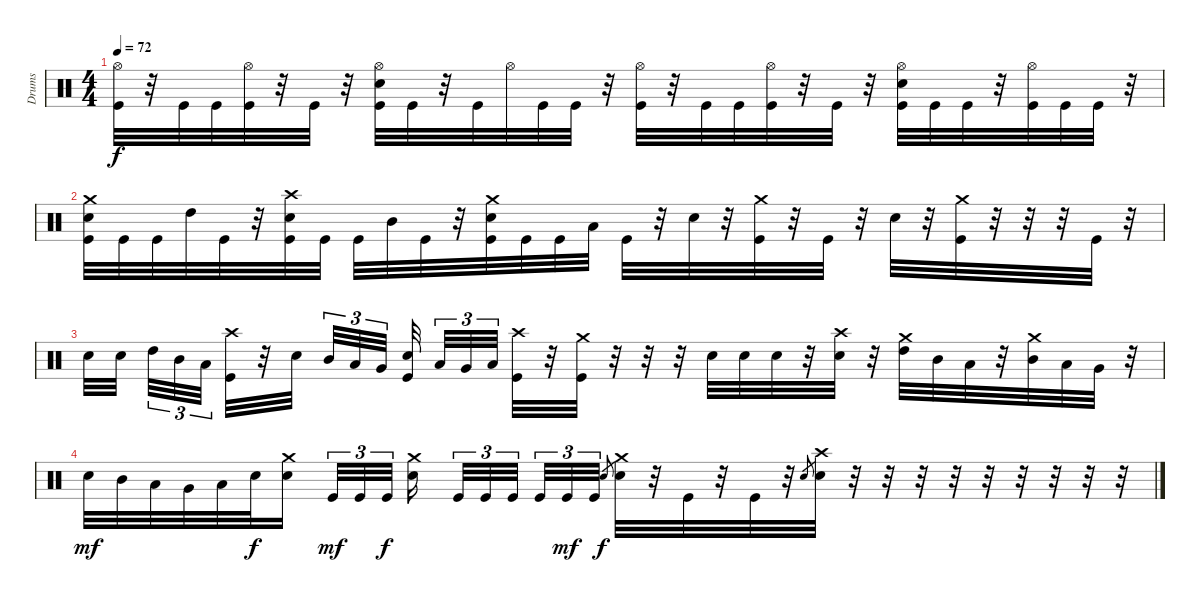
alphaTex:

\track ("Drums" "Drums") {instrument percussion}
\staff {score}
\articulation defaults
\ts (4 4)
\tempo 72
\clef neutral
\ks c
("Hi-Hat (open)" "Kick (hit)").32{dy f} r.32 "Kick (hit)".32 "Kick (hit)".32 ("Hi-Hat (open)" "Kick (hit)").32 r.32 "Kick (hit)".32 r.32 ("Hi-Hat (open)" "Electric Snare (hit)" "Kick (hit)").32 "Kick (hit)".32 r.32 "Kick (hit)".32 "Hi-Hat (open)".32 "Kick (hit)".32 "Kick (hit)".32 r.32 ("Hi-Hat (open)" "Kick (hit)").32 r.32 "Kick (hit)".32 "Kick (hit)".32 ("Hi-Hat (open)" "Kick (hit)").32 r.32 "Kick (hit)".32 r.32 ("Hi-Hat (open)" "Electric Snare (hit)" "Kick (hit)").32 "Kick (hit)".32 "Kick (hit)".32 r.32 ("Hi-Hat (open)" "Kick (hit)").32 "Kick (hit)".32 "Kick (hit)".32 r.32 |
("Crash medium (hit)" "Electric Snare (hit)" "Kick (hit)").32 "Kick (hit)".32 "Kick (hit)".32 "High Tom (hit)".32 "Kick (hit)".32 r.32 ("Crash high (hit)" "Electric Snare (hit)" "Kick (hit)").32 "Kick (hit)".32 "Kick (hit)".32 "Mid Tom (hit)".32 "Kick (hit)".32 r.32 ("Crash medium (hit)" "Electric Snare (hit)" "Kick (hit)").32 "Kick (hit)".32 "Kick (hit)".32 "Low Tom (hit)".32 "Kick (hit)".32 r.32 "Electric Snare (hit)".32 r.32 ("Crash medium (hit)" "Kick (hit)").32 r.32 "Kick (hit)".32 r.32 "Electric Snare (hit)".32 r.32 ("Crash medium (hit)" "Kick (hit)").32 r.32 r.32 r.32 "Kick (hit)".32 r.32 |
"Electric Snare (hit)".32 "Electric Snare (hit)".32{beam splitsecondary} "High Tom (hit)".32{tu (3 2)} "Mid Tom (hit)".32{tu (3 2)} "Low Tom (hit)".32{tu (3 2) beam splitsecondary} ("Crash high (hit)" "Kick (hit)").32 r.32 "Electric Snare (hit)".32{beam splitsecondary} "Mid Tom (hit)".32{tu (3 2)} "Low Tom (hit)".32{tu (3 2)} "Very Low Tom (hit)".32{tu (3 2) beam splitsecondary} ("Electric Snare (hit)" "Kick (hit)").32{beam splitsecondary} "Low Tom (hit)".32{tu (3 2)} "Very Low Tom (hit)".32{tu (3 2)} "Low Floor Tom (hit)".32{tu (3 2) beam splitsecondary} ("Crash high (hit)" "Kick (hit)").32 r.32 ("Crash medium (hit)" "Kick (hit)").32 r.32 r.32 r.32 "Electric Snare (hit)".32 "Electric Snare (hit)".32 "Electric Snare (hit)".32 r.32 ("Crash high (hit)" "Electric Snare (hit)").32 r.32 ("Crash medium (hit)" "High Tom (hit)").32 "Mid Tom (hit)".32 "Low Tom (hit)".32 r.32 ("Crash medium (hit)" "Mid Tom (hit)").32 "Low Tom (hit)".32 "Very Low Tom (hit)".32 r.32 |
"Electric Snare (hit)".32{dy mf} "Mid Tom (hit)".32 "Low Tom (hit)".32 "Very Low Tom (hit)".32 "Low Floor Tom (hit)".32 "Electric Snare (hit)".32{dy f} ("Crash medium (hit)" "Electric Snare (hit)").16 "Kick (hit)".32{tu (3 2) dy mf} "Kick (hit)".32{tu (3 2)} "Kick (hit)".32{tu (3 2) dy f beam splitsecondary} ("Crash medium (hit)" "Electric Snare (hit)").16{beam splitsecondary} "Kick (hit)".32{tu (3 2)} "Kick (hit)".32{tu (3 2)} "Kick (hit)".32{tu (3 2) beam splitsecondary} "Kick (hit)".32{tu (3 2)} "Kick (hit)".32{tu (3 2) dy mf} "Kick (hit)".32{tu (3 2)} "Electric Snare (hit)".8{gr dy f} ("Crash medium (hit)" "Electric Snare (hit)").32 r.32 "Kick (hit)".32 r.32 "Kick (hit)".32 r.32 "Electric Snare (hit)".8{gr} ("Crash high (hit)" "Electric Snare (hit)").32 r.32 r.32 r.32 r.32 r.32 r.32 r.32 r.32 r.32
